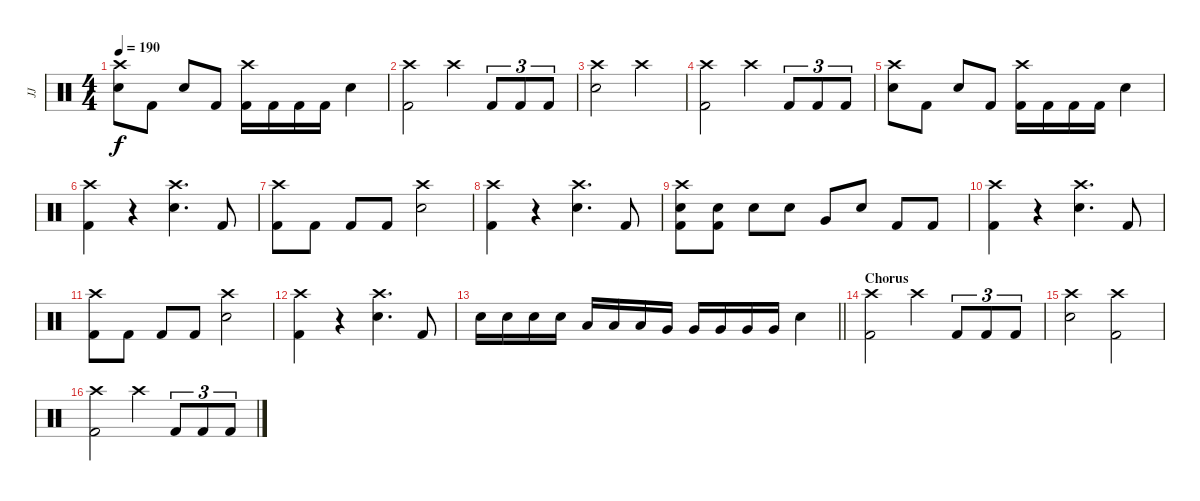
\track ("JJ" "JJ") {instrument percussion}
\staff {score}
\articulation defaults
\ts (4 4)
\tempo 190
\clef neutral
\ks c
("Crash high (hit)" "Electric Snare (hit)").8{dy f} "Kick (hit) 2".8 "Electric Snare (hit)".8 "Kick (hit) 2".8 ("Crash high (hit)" "Kick (hit) 2").16 "Kick (hit) 2".16 "Kick (hit) 2".16 "Kick (hit) 2".16 "Electric Snare (hit)".4 |
("Crash high (hit)" "Kick (hit) 2").2 "Crash high (hit)".4 "Kick (hit) 2".8{tu (3 2)} "Kick (hit) 2".8{tu (3 2)} "Kick (hit) 2".8{tu (3 2)} |
("Crash high (hit)" "Electric Snare (hit)").2 "Crash high (hit)".2 |
("Crash high (hit)" "Kick (hit) 2").2 "Crash high (hit)".4 "Kick (hit) 2".8{tu (3 2)} "Kick (hit) 2".8{tu (3 2)} "Kick (hit) 2".8{tu (3 2)} |
("Crash high (hit)" "Electric Snare (hit)").8 "Kick (hit) 2".8 "Electric Snare (hit)".8 "Kick (hit) 2".8 ("Crash high (hit)" "Kick (hit) 2").16 "Kick (hit) 2".16 "Kick (hit) 2".16 "Kick (hit) 2".16 "Electric Snare (hit)".4 |
("Crash high (hit)" "Kick (hit) 2").4 r.4 ("Crash high (hit)" "Electric Snare (hit)").4{d} "Kick (hit) 2".8 |
("Crash high (hit)" "Kick (hit) 2").8 "Kick (hit) 2".8 "Kick (hit) 2".8 "Kick (hit) 2".8 ("Crash high (hit)" "Electric Snare (hit)").2 |
("Crash high (hit)" "Kick (hit) 2").4 r.4 ("Crash high (hit)" "Electric Snare (hit)").4{d} "Kick (hit) 2".8 |
("Crash high (hit)" "Electric Snare (hit)" "Kick (hit) 2").8 ("Electric Snare (hit)" "Kick (hit) 2").8 "Electric Snare (hit)".8 "Electric Snare (hit)".8 "Very Low Tom (hit)".8 "Electric Snare (hit)".8 "Kick (hit) 2".8 "Kick (hit) 2".8 |
("Crash high (hit)" "Kick (hit) 2").4 r.4 ("Crash high (hit)" "Electric Snare (hit)").4{d} "Kick (hit) 2".8 |
("Crash high (hit)" "Kick (hit) 2").8 "Kick (hit) 2".8 "Kick (hit) 2".8 "Kick (hit) 2".8 ("Crash high (hit)" "Electric Snare (hit)").2 |
("Crash high (hit)" "Kick (hit) 2").4 r.4 ("Crash high (hit)" "Electric Snare (hit)").4{d} "Kick (hit) 2".8 |
\barLineRight lightlight "Electric Snare (hit)".16 "Electric Snare (hit)".16 "Electric Snare (hit)".16 "Electric Snare (hit)".16 "Low Floor Tom (hit)".16 "Low Floor Tom (hit)".16 "Low Floor Tom (hit)".16 "Very Low Tom (hit)".16 "Very Low Tom (hit)".16 "Very Low Tom (hit)".16 "Very Low Tom (hit)".16 "Very Low Tom (hit)".16 "Electric Snare (hit)".4
|
\section ("" "Chorus")
("Crash high (hit)" "Kick (hit) 2").2 "Crash high (hit)".4 "Kick (hit) 2".8{tu (3 2)} "Kick (hit) 2".8{tu (3 2)} "Kick (hit) 2".8{tu (3 2)} |
("Crash high (hit)" "Electric Snare (hit)").2 ("Crash high (hit)" "Kick (hit) 2").2 |
("Crash high (hit)" "Kick (hit) 2").2 "Crash high (hit)".4 "Kick (hit) 2".8{tu (3 2)} "Kick (hit) 2".8{tu (3 2)} "Kick (hit) 2".8{tu (3 2)}
